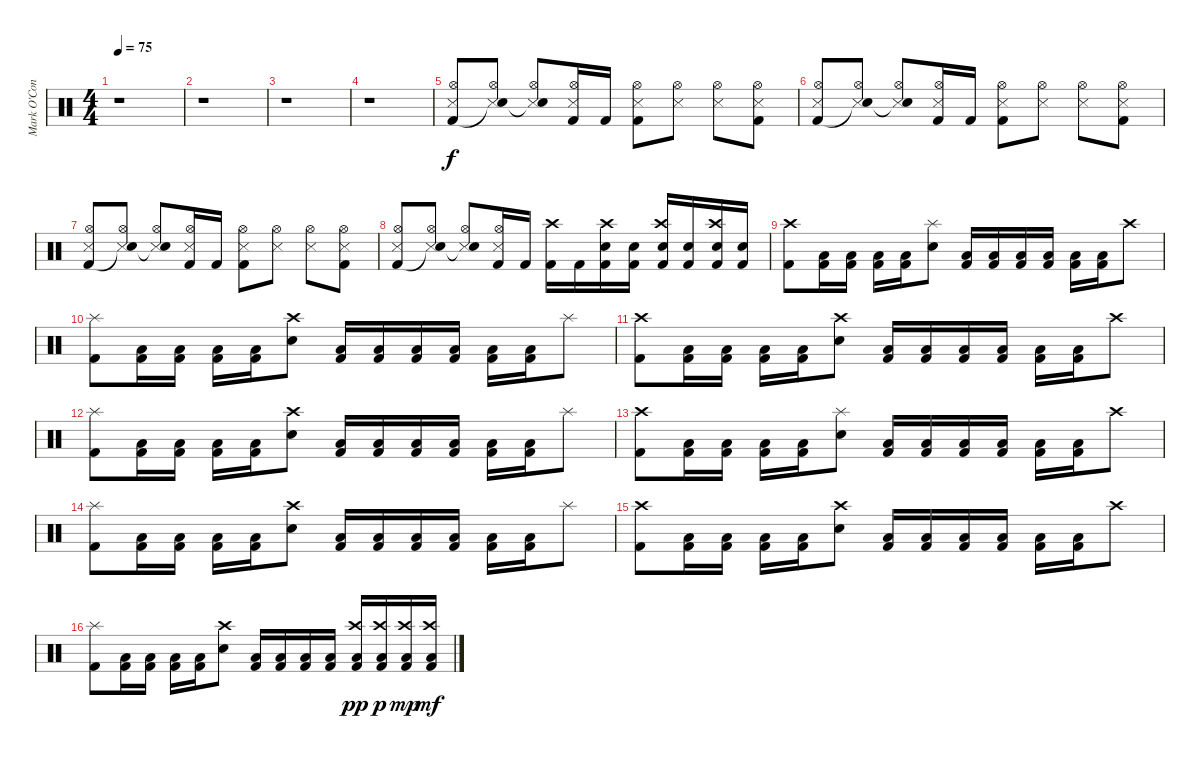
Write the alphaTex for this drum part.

\track ("Mark O'Connell (Drums)" "Mark O'Con") {instrument percussion}
\staff {score}
\articulation defaults
\ts (4 4)
\tempo 75
\clef neutral
\ks c
r.1{dy f} |
r.1 |
r.1 |
r.1 |
("Snare (side stick) 3" "Hi-Hat (open)" "Kick (hit) 2").8 ("Snare (side stick) 3" "Hi-Hat (open)" "Snare (hit)"{t}).8 ("Snare (side stick) 3" "Hi-Hat (open)" "Snare (hit)"{t}).8 ("Snare (side stick) 3" "Hi-Hat (open)" "Kick (hit) 2").16 "Kick (hit) 2".16 ("Snare (side stick) 3" "Hi-Hat (open)" "Kick (hit) 2").8 ("Snare (side stick) 3" "Hi-Hat (open)").8 ("Snare (side stick) 3" "Hi-Hat (open)").8 ("Snare (side stick) 3" "Hi-Hat (open)" "Kick (hit) 2").8 |
("Snare (side stick) 3" "Hi-Hat (open)" "Kick (hit) 2").8 ("Snare (side stick) 3" "Hi-Hat (open)" "Snare (hit)"{t}).8 ("Snare (side stick) 3" "Hi-Hat (open)" "Snare (hit)"{t}).8 ("Snare (side stick) 3" "Hi-Hat (open)" "Kick (hit) 2").16 "Kick (hit) 2".16 ("Snare (side stick) 3" "Hi-Hat (open)" "Kick (hit) 2").8 ("Snare (side stick) 3" "Hi-Hat (open)").8 ("Snare (side stick) 3" "Hi-Hat (open)").8 ("Snare (side stick) 3" "Hi-Hat (open)" "Kick (hit) 2").8 |
("Snare (side stick) 3" "Hi-Hat (open)" "Kick (hit) 2").8 ("Snare (side stick) 3" "Hi-Hat (open)" "Snare (hit)"{t}).8 ("Snare (side stick) 3" "Hi-Hat (open)" "Snare (hit)"{t}).8 ("Snare (side stick) 3" "Hi-Hat (open)" "Kick (hit) 2").16 "Kick (hit) 2".16 ("Snare (side stick) 3" "Hi-Hat (open)" "Kick (hit) 2").8 ("Snare (side stick) 3" "Hi-Hat (open)").8 ("Snare (side stick) 3" "Hi-Hat (open)").8 ("Snare (side stick) 3" "Hi-Hat (open)" "Kick (hit) 2").8 |
("Snare (side stick) 3" "Hi-Hat (open)" "Kick (hit) 2").8 ("Snare (side stick) 3" "Hi-Hat (open)" "Snare (hit)"{t}).8 ("Snare (side stick) 3" "Hi-Hat (open)" "Snare (hit)"{t}).8 ("Snare (side stick) 3" "Hi-Hat (open)" "Kick (hit) 2").16 "Kick (hit) 2".16 ("Crash high (hit)" "Kick (hit) 2").16 "Kick (hit) 2".16 ("Crash high (hit)" "Electric Snare (hit)" "Kick (hit) 2").16 ("Electric Snare (hit)" "Kick (hit) 2").16 ("Crash high (hit)" "Electric Snare (hit)" "Kick (hit) 2").16 ("Electric Snare (hit)" "Kick (hit) 2").16 ("Crash high (hit)" "Electric Snare (hit)" "Kick (hit) 2").16 ("Electric Snare (hit)" "Kick (hit) 2").16 |
("Crash high (hit)" "Kick (hit) 2").8 ("Low Tom (hit)" "Kick (hit) 2").16 ("Low Tom (hit)" "Kick (hit) 2").16 ("Low Tom (hit)" "Kick (hit) 2").16 ("Low Tom (hit)" "Kick (hit) 2").16 ("Splash (hit)" "Electric Snare (hit)").8 ("Low Tom (hit)" "Kick (hit) 2").16 ("Low Tom (hit)" "Kick (hit) 2").16 ("Low Tom (hit)" "Kick (hit) 2").16 ("Low Tom (hit)" "Kick (hit) 2").16 ("Low Tom (hit)" "Kick (hit) 2").16 ("Low Tom (hit)" "Kick (hit) 2").16 "Crash high (hit)".8 |
("Splash (hit)" "Kick (hit) 2").8 ("Low Tom (hit)" "Kick (hit) 2").16 ("Low Tom (hit)" "Kick (hit) 2").16 ("Low Tom (hit)" "Kick (hit) 2").16 ("Low Tom (hit)" "Kick (hit) 2").16 ("Crash high (hit)" "Electric Snare (hit)").8 ("Low Tom (hit)" "Kick (hit) 2").16 ("Low Tom (hit)" "Kick (hit) 2").16 ("Low Tom (hit)" "Kick (hit) 2").16 ("Low Tom (hit)" "Kick (hit) 2").16 ("Low Tom (hit)" "Kick (hit) 2").16 ("Low Tom (hit)" "Kick (hit) 2").16 "Splash (hit)".8 |
("Crash high (hit)" "Kick (hit) 2").8 ("Low Tom (hit)" "Kick (hit) 2").16 ("Low Tom (hit)" "Kick (hit) 2").16 ("Low Tom (hit)" "Kick (hit) 2").16 ("Low Tom (hit)" "Kick (hit) 2").16 ("Crash high (hit)" "Electric Snare (hit)").8 ("Low Tom (hit)" "Kick (hit) 2").16 ("Low Tom (hit)" "Kick (hit) 2").16 ("Low Tom (hit)" "Kick (hit) 2").16 ("Low Tom (hit)" "Kick (hit) 2").16 ("Low Tom (hit)" "Kick (hit) 2").16 ("Low Tom (hit)" "Kick (hit) 2").16 "Crash high (hit)".8 |
("Splash (hit)" "Kick (hit) 2").8 ("Low Tom (hit)" "Kick (hit) 2").16 ("Low Tom (hit)" "Kick (hit) 2").16 ("Low Tom (hit)" "Kick (hit) 2").16 ("Low Tom (hit)" "Kick (hit) 2").16 ("Crash high (hit)" "Electric Snare (hit)").8 ("Low Tom (hit)" "Kick (hit) 2").16 ("Low Tom (hit)" "Kick (hit) 2").16 ("Low Tom (hit)" "Kick (hit) 2").16 ("Low Tom (hit)" "Kick (hit) 2").16 ("Low Tom (hit)" "Kick (hit) 2").16 ("Low Tom (hit)" "Kick (hit) 2").16 "Splash (hit)".8 |
("Crash high (hit)" "Kick (hit) 2").8 ("Low Tom (hit)" "Kick (hit) 2").16 ("Low Tom (hit)" "Kick (hit) 2").16 ("Low Tom (hit)" "Kick (hit) 2").16 ("Low Tom (hit)" "Kick (hit) 2").16 ("Splash (hit)" "Electric Snare (hit)").8 ("Low Tom (hit)" "Kick (hit) 2").16 ("Low Tom (hit)" "Kick (hit) 2").16 ("Low Tom (hit)" "Kick (hit) 2").16 ("Low Tom (hit)" "Kick (hit) 2").16 ("Low Tom (hit)" "Kick (hit) 2").16 ("Low Tom (hit)" "Kick (hit) 2").16 "Crash high (hit)".8 |
("Splash (hit)" "Kick (hit) 2").8 ("Low Tom (hit)" "Kick (hit) 2").16 ("Low Tom (hit)" "Kick (hit) 2").16 ("Low Tom (hit)" "Kick (hit) 2").16 ("Low Tom (hit)" "Kick (hit) 2").16 ("Crash high (hit)" "Electric Snare (hit)").8 ("Low Tom (hit)" "Kick (hit) 2").16 ("Low Tom (hit)" "Kick (hit) 2").16 ("Low Tom (hit)" "Kick (hit) 2").16 ("Low Tom (hit)" "Kick (hit) 2").16 ("Low Tom (hit)" "Kick (hit) 2").16 ("Low Tom (hit)" "Kick (hit) 2").16 "Splash (hit)".8 |
("Crash high (hit)" "Kick (hit) 2").8 ("Low Tom (hit)" "Kick (hit) 2").16 ("Low Tom (hit)" "Kick (hit) 2").16 ("Low Tom (hit)" "Kick (hit) 2").16 ("Low Tom (hit)" "Kick (hit) 2").16 ("Crash high (hit)" "Electric Snare (hit)").8 ("Low Tom (hit)" "Kick (hit) 2").16 ("Low Tom (hit)" "Kick (hit) 2").16 ("Low Tom (hit)" "Kick (hit) 2").16 ("Low Tom (hit)" "Kick (hit) 2").16 ("Low Tom (hit)" "Kick (hit) 2").16 ("Low Tom (hit)" "Kick (hit) 2").16 "Crash high (hit)".8 |
("Splash (hit)" "Kick (hit) 2").8 ("Low Tom (hit)" "Kick (hit) 2").16 ("Low Tom (hit)" "Kick (hit) 2").16 ("Low Tom (hit)" "Kick (hit) 2").16 ("Low Tom (hit)" "Kick (hit) 2").16 ("Crash high (hit)" "Electric Snare (hit)").8 ("Low Tom (hit)" "Kick (hit) 2").16 ("Low Tom (hit)" "Kick (hit) 2").16 ("Low Tom (hit)" "Kick (hit) 2").16 ("Low Tom (hit)" "Kick (hit) 2").16 ("Crash high (hit)" "Low Tom (hit)" "Kick (hit) 2").16{dy pp} ("Crash high (hit)" "Low Tom (hit)" "Kick (hit) 2").16{dy p} ("Crash high (hit)" "Low Tom (hit)" "Kick (hit) 2").16{dy mp} ("Crash high (hit)" "Low Tom (hit)" "Kick (hit) 2").16{dy mf}
